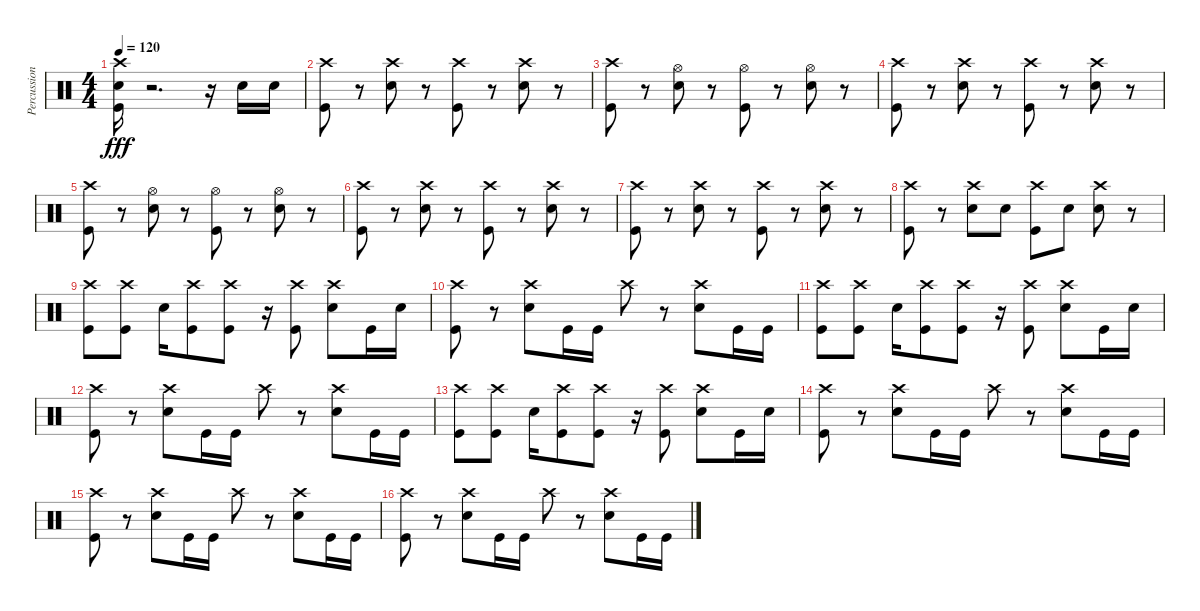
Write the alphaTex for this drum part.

\track ("Percussion" "Percussion") {instrument percussion}
\staff {score}
\articulation defaults
\ts (4 4)
\tempo 120
\clef neutral
\ks c
("Crash high (hit)" "Snare (hit) 2" "Kick (hit)").16{dy fff} r.2{d} r.16 "Snare (hit) 2".16 "Snare (hit) 2".16 |
("Crash high (hit)" "Kick (hit)").8 r.8 ("Crash high (hit)" "Snare (hit) 2").8 r.8 ("Crash high (hit)" "Kick (hit)").8 r.8 ("Crash high (hit)" "Snare (hit) 2").8 r.8 |
("Crash high (hit)" "Kick (hit)").8 r.8 ("Hi-Hat (open)" "Snare (hit) 2").8 r.8 ("Hi-Hat (open)" "Kick (hit)").8 r.8 ("Hi-Hat (open)" "Snare (hit) 2").8 r.8 |
("Crash high (hit)" "Kick (hit)").8 r.8 ("Crash high (hit)" "Snare (hit) 2").8 r.8 ("Crash high (hit)" "Kick (hit)").8 r.8 ("Crash high (hit)" "Snare (hit) 2").8 r.8 |
("Crash high (hit)" "Kick (hit)").8 r.8 ("Hi-Hat (open)" "Snare (hit) 2").8 r.8 ("Hi-Hat (open)" "Kick (hit)").8 r.8 ("Hi-Hat (open)" "Snare (hit) 2").8 r.8 |
("Crash high (hit)" "Kick (hit)").8 r.8 ("Crash high (hit)" "Snare (hit) 2").8 r.8 ("Crash high (hit)" "Kick (hit)").8 r.8 ("Crash high (hit)" "Snare (hit) 2").8 r.8 |
("Crash high (hit)" "Kick (hit)").8 r.8 ("Crash high (hit)" "Snare (hit) 2").8 r.8 ("Crash high (hit)" "Kick (hit)").8 r.8 ("Crash high (hit)" "Snare (hit) 2").8 r.8 |
("Crash high (hit)" "Kick (hit)").8 r.8 ("Crash high (hit)" "Snare (hit) 2").8 "Snare (hit) 2".8 ("Crash high (hit)" "Kick (hit)").8 "Snare (hit) 2".8 ("Crash high (hit)" "Snare (hit) 2").8 r.8 |
("Crash high (hit)" "Kick (hit)").8 ("Crash high (hit)" "Kick (hit)").8 "Snare (hit) 2".16 ("Crash high (hit)" "Kick (hit)").8 ("Crash high (hit)" "Kick (hit)").8 r.16 ("Crash high (hit)" "Kick (hit)").8 ("Crash high (hit)" "Snare (hit) 2").8 "Kick (hit)".16 "Snare (hit) 2".16 |
("Crash high (hit)" "Kick (hit)").8 r.8 ("Crash high (hit)" "Snare (hit) 2").8 "Kick (hit)".16 "Kick (hit)".16 "Crash high (hit)".8 r.8 ("Crash high (hit)" "Snare (hit) 2").8 "Kick (hit)".16 "Kick (hit)".16 |
("Crash high (hit)" "Kick (hit)").8 ("Crash high (hit)" "Kick (hit)").8 "Snare (hit) 2".16 ("Crash high (hit)" "Kick (hit)").8 ("Crash high (hit)" "Kick (hit)").8 r.16 ("Crash high (hit)" "Kick (hit)").8 ("Crash high (hit)" "Snare (hit) 2").8 "Kick (hit)".16 "Snare (hit) 2".16 |
("Crash high (hit)" "Kick (hit)").8 r.8 ("Crash high (hit)" "Snare (hit) 2").8 "Kick (hit)".16 "Kick (hit)".16 "Crash high (hit)".8 r.8 ("Crash high (hit)" "Snare (hit) 2").8 "Kick (hit)".16 "Kick (hit)".16 |
("Crash high (hit)" "Kick (hit)").8 ("Crash high (hit)" "Kick (hit)").8 "Snare (hit) 2".16 ("Crash high (hit)" "Kick (hit)").8 ("Crash high (hit)" "Kick (hit)").8 r.16 ("Crash high (hit)" "Kick (hit)").8 ("Crash high (hit)" "Snare (hit) 2").8 "Kick (hit)".16 "Snare (hit) 2".16 |
("Crash high (hit)" "Kick (hit)").8 r.8 ("Crash high (hit)" "Snare (hit) 2").8 "Kick (hit)".16 "Kick (hit)".16 "Crash high (hit)".8 r.8 ("Crash high (hit)" "Snare (hit) 2").8 "Kick (hit)".16 "Kick (hit)".16 |
("Crash high (hit)" "Kick (hit)").8 r.8 ("Crash high (hit)" "Snare (hit) 2").8 "Kick (hit)".16 "Kick (hit)".16 "Crash high (hit)".8 r.8 ("Crash high (hit)" "Snare (hit) 2").8 "Kick (hit)".16 "Kick (hit)".16 |
("Crash high (hit)" "Kick (hit)").8 r.8 ("Crash high (hit)" "Snare (hit) 2").8 "Kick (hit)".16 "Kick (hit)".16 "Crash high (hit)".8 r.8 ("Crash high (hit)" "Snare (hit) 2").8 "Kick (hit)".16 "Kick (hit)".16
